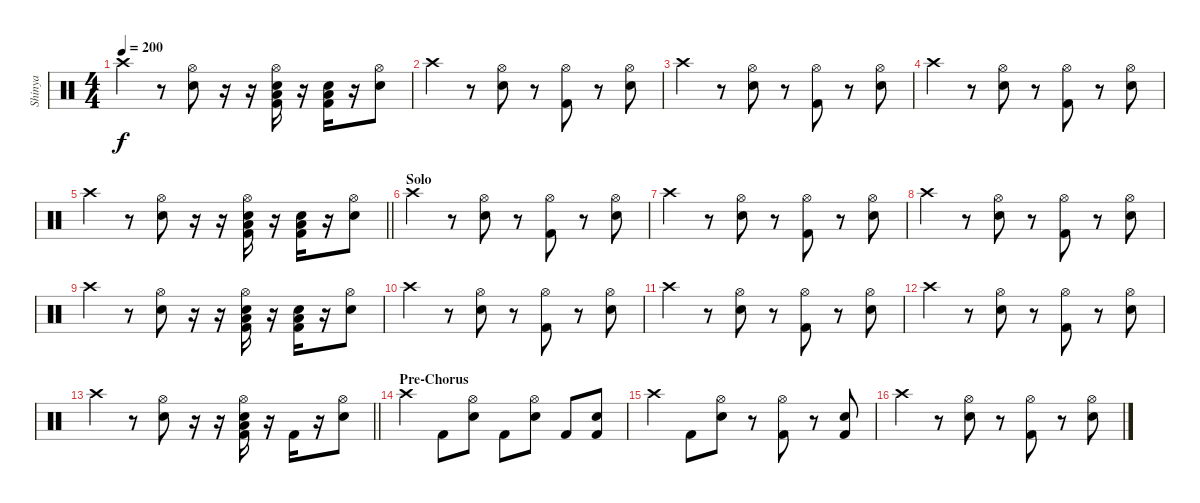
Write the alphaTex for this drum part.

\track ("Shinya" "Shinya") {instrument percussion}
\staff {score}
\articulation defaults
\ts (4 4)
\tempo 200
\clef neutral
\ks c "Crash high (hit)".4{dy f}
r.8 ("Hi-Hat (open)" "Electric Snare (hit)").8 r.16 r.16 ("Hi-Hat (open)" "Kick (hit) 2" "Electric Snare (hit)" "Low Tom (hit)").16 r.16 ("Kick (hit) 2" "Electric Snare (hit)" "Low Tom (hit)").16 r.16 ("Hi-Hat (open)" "Electric Snare (hit)").8 |
"Crash high (hit)".4 r.8 ("Hi-Hat (open)" "Electric Snare (hit)").8 r.8 ("Hi-Hat (open)" "Kick (hit) 2").8 r.8 ("Hi-Hat (open)" "Electric Snare (hit)").8 |
"Crash high (hit)".4 r.8 ("Hi-Hat (open)" "Electric Snare (hit)").8 r.8 ("Hi-Hat (open)" "Kick (hit) 2").8 r.8 ("Hi-Hat (open)" "Electric Snare (hit)").8 |
"Crash high (hit)".4 r.8 ("Hi-Hat (open)" "Electric Snare (hit)").8 r.8 ("Hi-Hat (open)" "Kick (hit) 2").8 r.8 ("Hi-Hat (open)" "Electric Snare (hit)").8 |
\barLineRight lightlight "Crash high (hit)".4
r.8 ("Hi-Hat (open)" "Electric Snare (hit)").8 r.16 r.16 ("Hi-Hat (open)" "Kick (hit) 2" "Electric Snare (hit)" "Low Tom (hit)").16 r.16 ("Kick (hit) 2" "Electric Snare (hit)" "Low Tom (hit)").16 r.16 ("Hi-Hat (open)" "Electric Snare (hit)").8 |
\section ("" "Solo")
"Crash high (hit)".4 r.8 ("Hi-Hat (open)" "Electric Snare (hit)").8 r.8 ("Hi-Hat (open)" "Kick (hit) 2").8 r.8 ("Hi-Hat (open)" "Electric Snare (hit)").8 |
"Crash high (hit)".4 r.8 ("Hi-Hat (open)" "Electric Snare (hit)").8 r.8 ("Hi-Hat (open)" "Kick (hit) 2").8 r.8 ("Hi-Hat (open)" "Electric Snare (hit)").8 |
"Crash high (hit)".4 r.8 ("Hi-Hat (open)" "Electric Snare (hit)").8 r.8 ("Hi-Hat (open)" "Kick (hit) 2").8 r.8 ("Hi-Hat (open)" "Electric Snare (hit)").8 |
"Crash high (hit)".4 r.8 ("Hi-Hat (open)" "Electric Snare (hit)").8 r.16 r.16 ("Hi-Hat (open)" "Kick (hit) 2" "Electric Snare (hit)" "Low Tom (hit)").16 r.16 ("Kick (hit) 2" "Electric Snare (hit)" "Low Tom (hit)").16 r.16 ("Hi-Hat (open)" "Electric Snare (hit)").8 |
"Crash high (hit)".4 r.8 ("Hi-Hat (open)" "Electric Snare (hit)").8 r.8 ("Hi-Hat (open)" "Kick (hit) 2").8 r.8 ("Hi-Hat (open)" "Electric Snare (hit)").8 |
"Crash high (hit)".4 r.8 ("Hi-Hat (open)" "Electric Snare (hit)").8 r.8 ("Hi-Hat (open)" "Kick (hit) 2").8 r.8 ("Hi-Hat (open)" "Electric Snare (hit)").8 |
"Crash high (hit)".4 r.8 ("Hi-Hat (open)" "Electric Snare (hit)").8 r.8 ("Hi-Hat (open)" "Kick (hit) 2").8 r.8 ("Hi-Hat (open)" "Electric Snare (hit)").8 |
\barLineRight lightlight "Crash high (hit)".4
r.8 ("Hi-Hat (open)" "Electric Snare (hit)").8 r.16 r.16 ("Hi-Hat (open)" "Kick (hit) 2" "Electric Snare (hit)" "Low Tom (hit)").16 r.16 "Kick (hit) 2".16 r.16 ("Hi-Hat (open)" "Electric Snare (hit)").8 |
\section ("" "Pre-Chorus")
"Crash high (hit)".4 "Kick (hit) 2".8 ("Electric Snare (hit)" "Hi-Hat (open)").8 "Kick (hit) 2".8 ("Electric Snare (hit)" "Hi-Hat (open)").8 "Kick (hit) 2".8 ("Electric Snare (hit)" "Kick (hit) 2").8 |
"Crash high (hit)".4 "Kick (hit) 2".8 ("Electric Snare (hit)" "Hi-Hat (open)").8 r.8 ("Kick (hit) 2" "Hi-Hat (open)").8 r.8 ("Electric Snare (hit)" "Kick (hit) 2").8 |
"Crash high (hit)".4 r.8 ("Hi-Hat (open)" "Electric Snare (hit)").8 r.8 ("Hi-Hat (open)" "Kick (hit) 2").8 r.8 ("Hi-Hat (open)" "Electric Snare (hit)").8
